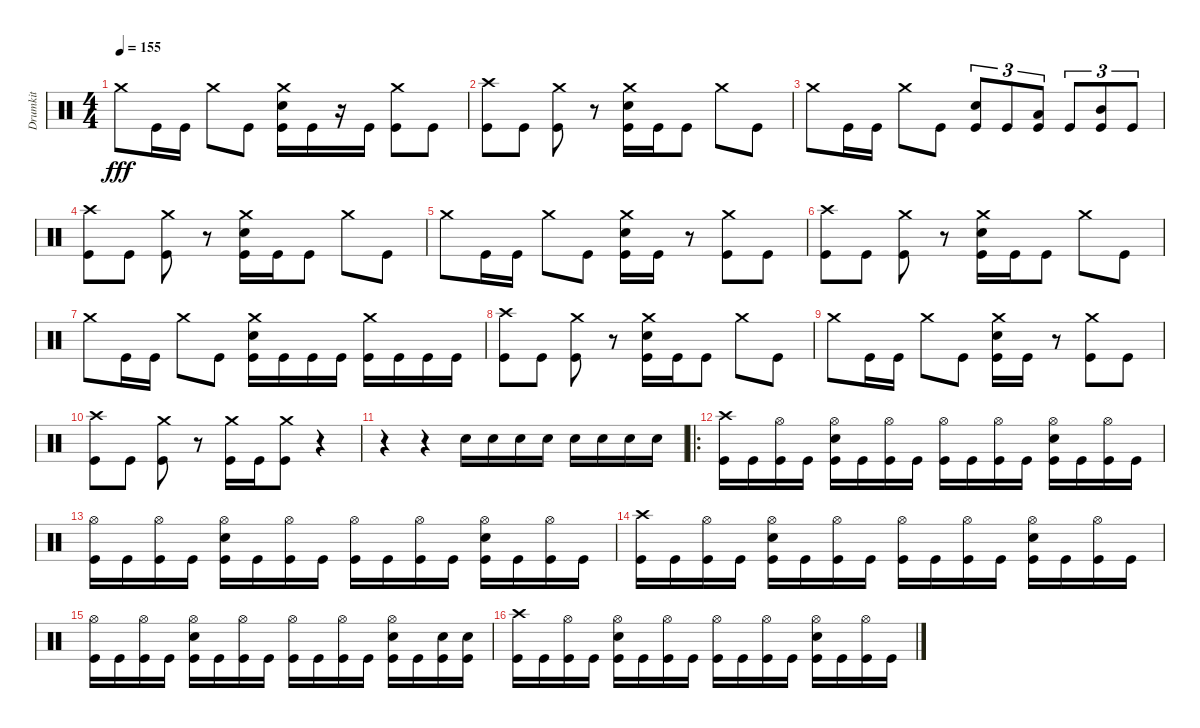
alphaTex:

\track ("Drumkit" "Drumkit") {instrument percussion}
\staff {score}
\articulation defaults
\ts (4 4)
\tempo 155
\clef neutral
\ks c "Crash medium (hit)".8{dy fff} "Kick (hit)".16 "Kick (hit)".16 "Crash medium (hit)".8 "Kick (hit)".8
("Crash medium (hit)" "Snare (hit) 2" "Kick (hit)").16 "Kick (hit)".16 r.16 "Kick (hit)".16 ("Crash medium (hit)" "Kick (hit)").8 "Kick (hit)".8 |
("Crash high (hit)" "Kick (hit)").8 "Kick (hit)".8 ("Crash medium (hit)" "Kick (hit)").8 r.8 ("Crash medium (hit)" "Snare (hit) 2" "Kick (hit)").16 "Kick (hit)".16 "Kick (hit)".8 "Crash medium (hit)".8 "Kick (hit)".8 |
"Crash medium (hit)".8 "Kick (hit)".16 "Kick (hit)".16 "Crash medium (hit)".8 "Kick (hit)".8 ("Snare (hit) 2" "Kick (hit)").8{tu (3 2)} "Kick (hit)".8{tu (3 2)} ("Low Tom (hit)" "Kick (hit)").8{tu (3 2)} "Kick (hit)".8{tu (3 2)} ("Mid Tom (hit)" "Kick (hit)").8{tu (3 2)} "Kick (hit)".8{tu (3 2)} |
("Crash high (hit)" "Kick (hit)").8 "Kick (hit)".8 ("Crash medium (hit)" "Kick (hit)").8 r.8 ("Crash medium (hit)" "Snare (hit) 2" "Kick (hit)").16 "Kick (hit)".16 "Kick (hit)".8 "Crash medium (hit)".8 "Kick (hit)".8 |
"Crash medium (hit)".8 "Kick (hit)".16 "Kick (hit)".16 "Crash medium (hit)".8 "Kick (hit)".8 ("Crash medium (hit)" "Snare (hit) 2" "Kick (hit)").16 "Kick (hit)".16 r.8 ("Crash medium (hit)" "Kick (hit)").8 "Kick (hit)".8 |
("Crash high (hit)" "Kick (hit)").8 "Kick (hit)".8 ("Crash medium (hit)" "Kick (hit)").8 r.8 ("Crash medium (hit)" "Snare (hit) 2" "Kick (hit)").16 "Kick (hit)".16 "Kick (hit)".8 "Crash medium (hit)".8 "Kick (hit)".8 |
"Crash medium (hit)".8 "Kick (hit)".16 "Kick (hit)".16 "Crash medium (hit)".8 "Kick (hit)".8 ("Crash medium (hit)" "Snare (hit) 2" "Kick (hit)").16 "Kick (hit)".16 "Kick (hit)".16 "Kick (hit)".16 ("Crash medium (hit)" "Kick (hit)").16 "Kick (hit)".16 "Kick (hit)".16 "Kick (hit)".16 |
("Crash high (hit)" "Kick (hit)").8 "Kick (hit)".8 ("Crash medium (hit)" "Kick (hit)").8 r.8 ("Crash medium (hit)" "Snare (hit) 2" "Kick (hit)").16 "Kick (hit)".16 "Kick (hit)".8 "Crash medium (hit)".8 "Kick (hit)".8 |
"Crash medium (hit)".8 "Kick (hit)".16 "Kick (hit)".16 "Crash medium (hit)".8 "Kick (hit)".8 ("Crash medium (hit)" "Snare (hit) 2" "Kick (hit)").16 "Kick (hit)".16 r.8 ("Crash medium (hit)" "Kick (hit)").8 "Kick (hit)".8 |
("Crash high (hit)" "Kick (hit)").8 "Kick (hit)".8 ("Crash medium (hit)" "Kick (hit)").8 r.8 ("Crash medium (hit)" "Kick (hit)").16 "Kick (hit)".16 ("Crash medium (hit)" "Kick (hit)").8 r.4 |
r.4 r.4 "Snare (hit) 2".16 "Snare (hit) 2".16 "Snare (hit) 2".16 "Snare (hit) 2".16 "Snare (hit) 2".16 "Snare (hit) 2".16 "Snare (hit) 2".16 "Snare (hit) 2".16 |
\ro
("Crash high (hit)" "Kick (hit)").16 "Kick (hit)".16 ("Hi-Hat (open)" "Kick (hit)").16 "Kick (hit)".16 ("Hi-Hat (open)" "Snare (hit) 2" "Kick (hit)").16 "Kick (hit)".16 ("Hi-Hat (open)" "Kick (hit)").16 "Kick (hit)".16 ("Hi-Hat (open)" "Kick (hit)").16 "Kick (hit)".16 ("Hi-Hat (open)" "Kick (hit)").16 "Kick (hit)".16 ("Hi-Hat (open)" "Snare (hit) 2" "Kick (hit)").16 "Kick (hit)".16 ("Hi-Hat (open)" "Kick (hit)").16 "Kick (hit)".16 |
("Hi-Hat (open)" "Kick (hit)").16 "Kick (hit)".16 ("Hi-Hat (open)" "Kick (hit)").16 "Kick (hit)".16 ("Hi-Hat (open)" "Snare (hit) 2" "Kick (hit)").16 "Kick (hit)".16 ("Hi-Hat (open)" "Kick (hit)").16 "Kick (hit)".16 ("Hi-Hat (open)" "Kick (hit)").16 "Kick (hit)".16 ("Hi-Hat (open)" "Kick (hit)").16 "Kick (hit)".16 ("Hi-Hat (open)" "Snare (hit) 2" "Kick (hit)").16 "Kick (hit)".16 ("Hi-Hat (open)" "Kick (hit)").16 "Kick (hit)".16 |
("Crash high (hit)" "Kick (hit)").16 "Kick (hit)".16 ("Hi-Hat (open)" "Kick (hit)").16 "Kick (hit)".16 ("Hi-Hat (open)" "Snare (hit) 2" "Kick (hit)").16 "Kick (hit)".16 ("Hi-Hat (open)" "Kick (hit)").16 "Kick (hit)".16 ("Hi-Hat (open)" "Kick (hit)").16 "Kick (hit)".16 ("Hi-Hat (open)" "Kick (hit)").16 "Kick (hit)".16 ("Hi-Hat (open)" "Snare (hit) 2" "Kick (hit)").16 "Kick (hit)".16 ("Hi-Hat (open)" "Kick (hit)").16 "Kick (hit)".16 |
("Hi-Hat (open)" "Kick (hit)").16 "Kick (hit)".16 ("Hi-Hat (open)" "Kick (hit)").16 "Kick (hit)".16 ("Hi-Hat (open)" "Snare (hit) 2" "Kick (hit)").16 "Kick (hit)".16 ("Hi-Hat (open)" "Kick (hit)").16 "Kick (hit)".16 ("Hi-Hat (open)" "Kick (hit)").16 "Kick (hit)".16 ("Hi-Hat (open)" "Kick (hit)").16 "Kick (hit)".16 ("Hi-Hat (open)" "Snare (hit) 2" "Kick (hit)").16 "Kick (hit)".16 ("Snare (hit) 2" "Kick (hit)").16 ("Snare (hit) 2" "Kick (hit)").16 |
("Crash high (hit)" "Kick (hit)").16 "Kick (hit)".16 ("Hi-Hat (open)" "Kick (hit)").16 "Kick (hit)".16 ("Hi-Hat (open)" "Snare (hit) 2" "Kick (hit)").16 "Kick (hit)".16 ("Hi-Hat (open)" "Kick (hit)").16 "Kick (hit)".16 ("Hi-Hat (open)" "Kick (hit)").16 "Kick (hit)".16 ("Hi-Hat (open)" "Kick (hit)").16 "Kick (hit)".16 ("Hi-Hat (open)" "Snare (hit) 2" "Kick (hit)").16 "Kick (hit)".16 ("Hi-Hat (open)" "Kick (hit)").16 "Kick (hit)".16
